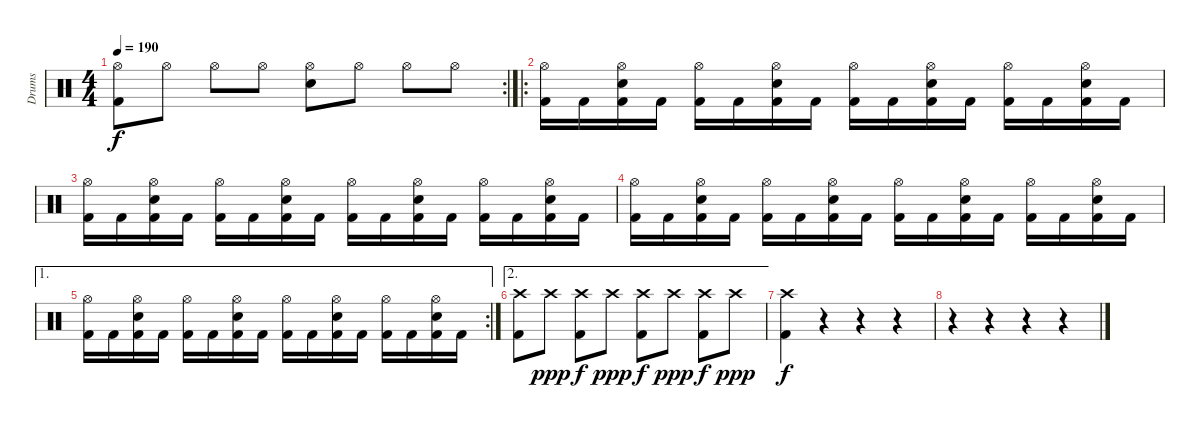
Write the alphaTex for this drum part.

\track ("Drums" "Drums") {instrument percussion}
\staff {score}
\articulation defaults
\rc 2
\ts (4 4)
\tempo 190
\clef neutral
\ks c
("Hi-Hat (open)" "Kick (hit) 2").8{dy f} "Hi-Hat (open)".8 "Hi-Hat (open)".8 "Hi-Hat (open)".8 ("Hi-Hat (open)" "Electric Snare (hit)").8 "Hi-Hat (open)".8 "Hi-Hat (open)".8 "Hi-Hat (open)".8 |
\ro
("Hi-Hat (open)" "Kick (hit) 2").16 "Kick (hit) 2".16 ("Hi-Hat (open)" "Kick (hit) 2" "Electric Snare (hit)").16 "Kick (hit) 2".16 ("Hi-Hat (open)" "Kick (hit) 2").16 "Kick (hit) 2".16 ("Hi-Hat (open)" "Kick (hit) 2" "Electric Snare (hit)").16 "Kick (hit) 2".16 ("Hi-Hat (open)" "Kick (hit) 2").16 "Kick (hit) 2".16 ("Hi-Hat (open)" "Kick (hit) 2" "Electric Snare (hit)").16 "Kick (hit) 2".16 ("Hi-Hat (open)" "Kick (hit) 2").16 "Kick (hit) 2".16 ("Hi-Hat (open)" "Kick (hit) 2" "Electric Snare (hit)").16 "Kick (hit) 2".16 |
("Hi-Hat (open)" "Kick (hit) 2").16 "Kick (hit) 2".16 ("Hi-Hat (open)" "Kick (hit) 2" "Electric Snare (hit)").16 "Kick (hit) 2".16 ("Hi-Hat (open)" "Kick (hit) 2").16 "Kick (hit) 2".16 ("Hi-Hat (open)" "Kick (hit) 2" "Electric Snare (hit)").16 "Kick (hit) 2".16 ("Hi-Hat (open)" "Kick (hit) 2").16 "Kick (hit) 2".16 ("Hi-Hat (open)" "Kick (hit) 2" "Electric Snare (hit)").16 "Kick (hit) 2".16 ("Hi-Hat (open)" "Kick (hit) 2").16 "Kick (hit) 2".16 ("Hi-Hat (open)" "Kick (hit) 2" "Electric Snare (hit)").16 "Kick (hit) 2".16 |
("Hi-Hat (open)" "Kick (hit) 2").16 "Kick (hit) 2".16 ("Hi-Hat (open)" "Kick (hit) 2" "Electric Snare (hit)").16 "Kick (hit) 2".16 ("Hi-Hat (open)" "Kick (hit) 2").16 "Kick (hit) 2".16 ("Hi-Hat (open)" "Kick (hit) 2" "Electric Snare (hit)").16 "Kick (hit) 2".16 ("Hi-Hat (open)" "Kick (hit) 2").16 "Kick (hit) 2".16 ("Hi-Hat (open)" "Kick (hit) 2" "Electric Snare (hit)").16 "Kick (hit) 2".16 ("Hi-Hat (open)" "Kick (hit) 2").16 "Kick (hit) 2".16 ("Hi-Hat (open)" "Kick (hit) 2" "Electric Snare (hit)").16 "Kick (hit) 2".16 |
\ae 1
\rc 2
("Hi-Hat (open)" "Kick (hit) 2").16 "Kick (hit) 2".16 ("Hi-Hat (open)" "Kick (hit) 2" "Electric Snare (hit)").16 "Kick (hit) 2".16 ("Hi-Hat (open)" "Kick (hit) 2").16 "Kick (hit) 2".16 ("Hi-Hat (open)" "Kick (hit) 2" "Electric Snare (hit)").16 "Kick (hit) 2".16 ("Hi-Hat (open)" "Kick (hit) 2").16 "Kick (hit) 2".16 ("Hi-Hat (open)" "Kick (hit) 2" "Electric Snare (hit)").16 "Kick (hit) 2".16 ("Hi-Hat (open)" "Kick (hit) 2").16 "Kick (hit) 2".16 ("Hi-Hat (open)" "Kick (hit) 2" "Electric Snare (hit)").16 "Kick (hit) 2".16 |
\ae 2
("Crash high (hit)" "Kick (hit) 2").8 "Crash high (hit)".8{dy ppp} ("Crash high (hit)" "Kick (hit) 2").8{dy f} "Crash high (hit)".8{dy ppp} ("Crash high (hit)" "Kick (hit) 2").8{dy f} "Crash high (hit)".8{dy ppp} ("Crash high (hit)" "Kick (hit) 2").8{dy f} "Crash high (hit)".8{dy ppp} |
("Crash high (hit)" "Kick (hit) 2").4{dy f} r.4 r.4 r.4 |
r.4 r.4 r.4 r.4
